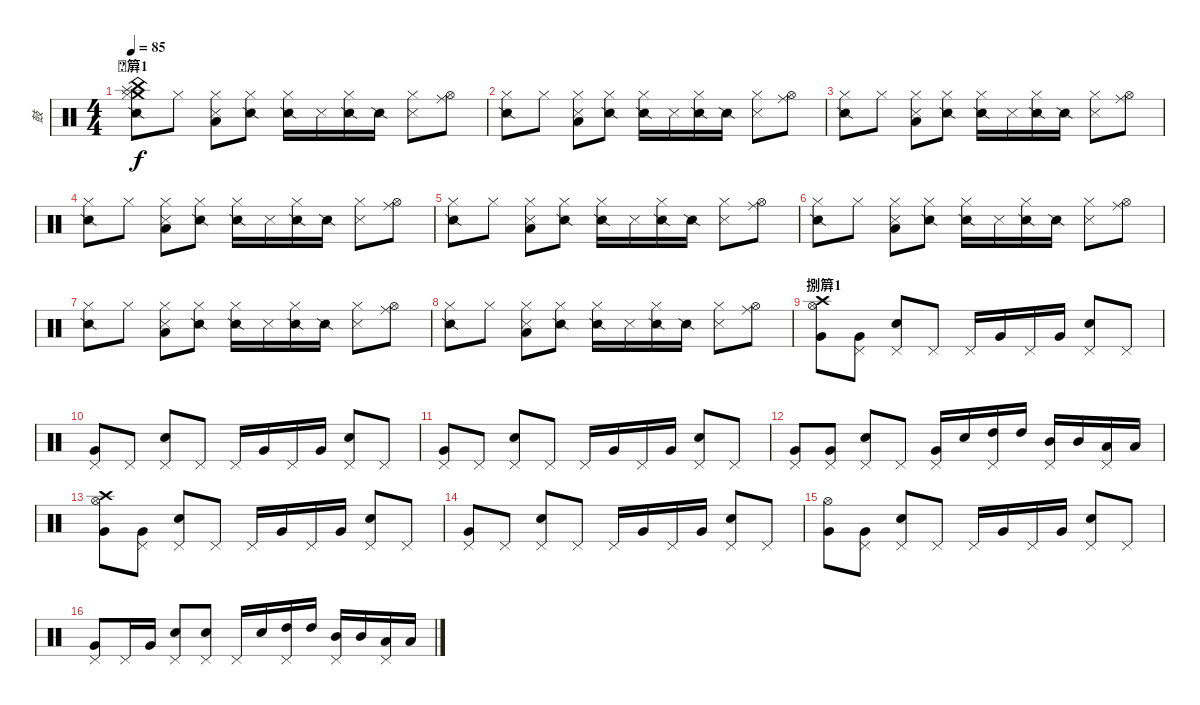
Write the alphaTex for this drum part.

\track ("鼓" "鼓") {instrument percussion}
\staff {score}
\articulation defaults
\ts (4 4)
\section ("" "簈1")
\tempo 85
\clef neutral
\ks c
("Crash medium (hit)" "Splash (hit)" "China (hit)" "Snare (side stick) 2" "Hi-Hat (closed)").8{dy f volume 16} "Hi-Hat (closed)".8 ("Metronome (hit)" "Low Floor Tom (hit)" "Hi-Hat (closed)").8 ("Snare (side stick) 2" "Hi-Hat (closed)").8 ("Snare (side stick) 2" "Hi-Hat (closed)").16 "Metronome (hit)".16 ("Snare (side stick) 2" "Hi-Hat (closed)").16 "Snare (side stick) 2".16 ("Metronome (hit)" "Hi-Hat (closed)").8 ("Ride (middle)" "Hi-Hat (open)").8 |
("Snare (side stick) 2" "Hi-Hat (closed)").8 "Hi-Hat (closed)".8 ("Metronome (hit)" "Low Floor Tom (hit)" "Hi-Hat (closed)").8 ("Snare (side stick) 2" "Hi-Hat (closed)").8 ("Snare (side stick) 2" "Hi-Hat (closed)").16 "Metronome (hit)".16 ("Snare (side stick) 2" "Hi-Hat (closed)").16 "Snare (side stick) 2".16 ("Metronome (hit)" "Hi-Hat (closed)").8 ("Ride (middle)" "Hi-Hat (open)").8 |
("Snare (side stick) 2" "Hi-Hat (closed)").8 "Hi-Hat (closed)".8 ("Metronome (hit)" "Low Floor Tom (hit)" "Hi-Hat (closed)").8 ("Snare (side stick) 2" "Hi-Hat (closed)").8 ("Snare (side stick) 2" "Hi-Hat (closed)").16 "Metronome (hit)".16 ("Snare (side stick) 2" "Hi-Hat (closed)").16 "Snare (side stick) 2".16 ("Metronome (hit)" "Hi-Hat (closed)").8 ("Ride (middle)" "Hi-Hat (open)").8 |
("Snare (side stick) 2" "Hi-Hat (closed)").8 "Hi-Hat (closed)".8 ("Metronome (hit)" "Low Floor Tom (hit)" "Hi-Hat (closed)").8 ("Snare (side stick) 2" "Hi-Hat (closed)").8 ("Snare (side stick) 2" "Hi-Hat (closed)").16 "Metronome (hit)".16 ("Snare (side stick) 2" "Hi-Hat (closed)").16 "Snare (side stick) 2".16 ("Metronome (hit)" "Hi-Hat (closed)").8 ("Ride (middle)" "Hi-Hat (open)").8 |
("Snare (side stick) 2" "Hi-Hat (closed)").8 "Hi-Hat (closed)".8 ("Metronome (hit)" "Low Floor Tom (hit)" "Hi-Hat (closed)").8 ("Snare (side stick) 2" "Hi-Hat (closed)").8 ("Snare (side stick) 2" "Hi-Hat (closed)").16 "Metronome (hit)".16 ("Snare (side stick) 2" "Hi-Hat (closed)").16 "Snare (side stick) 2".16 ("Metronome (hit)" "Hi-Hat (closed)").8 ("Ride (middle)" "Hi-Hat (open)").8 |
("Snare (side stick) 2" "Hi-Hat (closed)").8 "Hi-Hat (closed)".8 ("Metronome (hit)" "Low Floor Tom (hit)" "Hi-Hat (closed)").8 ("Snare (side stick) 2" "Hi-Hat (closed)").8 ("Snare (side stick) 2" "Hi-Hat (closed)").16 "Metronome (hit)".16 ("Snare (side stick) 2" "Hi-Hat (closed)").16 "Snare (side stick) 2".16 ("Metronome (hit)" "Hi-Hat (closed)").8 ("Ride (middle)" "Hi-Hat (open)").8 |
("Snare (side stick) 2" "Hi-Hat (closed)").8 "Hi-Hat (closed)".8 ("Metronome (hit)" "Low Floor Tom (hit)" "Hi-Hat (closed)").8 ("Snare (side stick) 2" "Hi-Hat (closed)").8 ("Snare (side stick) 2" "Hi-Hat (closed)").16 "Metronome (hit)".16 ("Snare (side stick) 2" "Hi-Hat (closed)").16 "Snare (side stick) 2".16 ("Metronome (hit)" "Hi-Hat (closed)").8 ("Ride (middle)" "Hi-Hat (open)").8 |
("Snare (side stick) 2" "Hi-Hat (closed)").8 "Hi-Hat (closed)".8 ("Metronome (hit)" "Low Floor Tom (hit)" "Hi-Hat (closed)").8 ("Snare (side stick) 2" "Hi-Hat (closed)").8 ("Snare (side stick) 2" "Hi-Hat (closed)").16 "Metronome (hit)".16 ("Snare (side stick) 2" "Hi-Hat (closed)").16 "Snare (side stick) 2".16 ("Metronome (hit)" "Hi-Hat (closed)").8 ("Ride (middle)" "Hi-Hat (open)").8 |
\section ("" "捌簈1")
("Crash high (hit)" "Very Low Tom (hit)" "Hi-Hat (open)").8 ("Very Low Tom (hit)" "Pedal Hi-Hat (hit)").8 ("Snare (hit) 2" "Pedal Hi-Hat (hit)").8 "Pedal Hi-Hat (hit)".8 "Pedal Hi-Hat (hit)".16 "Very Low Tom (hit)".16 "Pedal Hi-Hat (hit)".16 "Very Low Tom (hit)".16 ("Snare (hit) 2" "Pedal Hi-Hat (hit)").8 "Pedal Hi-Hat (hit)".8 |
("Very Low Tom (hit)" "Pedal Hi-Hat (hit)").8 "Pedal Hi-Hat (hit)".8 ("Snare (hit) 2" "Pedal Hi-Hat (hit)").8 "Pedal Hi-Hat (hit)".8 "Pedal Hi-Hat (hit)".16 "Very Low Tom (hit)".16 "Pedal Hi-Hat (hit)".16 "Very Low Tom (hit)".16 ("Snare (hit) 2" "Pedal Hi-Hat (hit)").8 "Pedal Hi-Hat (hit)".8 |
("Very Low Tom (hit)" "Pedal Hi-Hat (hit)").8 "Pedal Hi-Hat (hit)".8 ("Snare (hit) 2" "Pedal Hi-Hat (hit)").8 "Pedal Hi-Hat (hit)".8 "Pedal Hi-Hat (hit)".16 "Very Low Tom (hit)".16 "Pedal Hi-Hat (hit)".16 "Very Low Tom (hit)".16 ("Snare (hit) 2" "Pedal Hi-Hat (hit)").8 "Pedal Hi-Hat (hit)".8 |
("Very Low Tom (hit)" "Pedal Hi-Hat (hit)").8 ("Very Low Tom (hit)" "Pedal Hi-Hat (hit)").8 ("Snare (hit) 2" "Pedal Hi-Hat (hit)").8 "Pedal Hi-Hat (hit)".8 ("Very Low Tom (hit)" "Pedal Hi-Hat (hit)").16 "Snare (hit) 2".16 ("High Tom (hit)" "Pedal Hi-Hat (hit)").16 "High Tom (hit)".16 ("Mid Tom (hit)" "Pedal Hi-Hat (hit)").16 "Mid Tom (hit)".16 ("Low Tom (hit)" "Pedal Hi-Hat (hit)").16 "Low Tom (hit)".16 |
("Crash high (hit)" "Very Low Tom (hit)" "Hi-Hat (open)").8 ("Very Low Tom (hit)" "Pedal Hi-Hat (hit)").8 ("Snare (hit) 2" "Pedal Hi-Hat (hit)").8 "Pedal Hi-Hat (hit)".8 "Pedal Hi-Hat (hit)".16 "Very Low Tom (hit)".16 "Pedal Hi-Hat (hit)".16 "Very Low Tom (hit)".16 ("Snare (hit) 2" "Pedal Hi-Hat (hit)").8 "Pedal Hi-Hat (hit)".8 |
("Very Low Tom (hit)" "Pedal Hi-Hat (hit)").8 "Pedal Hi-Hat (hit)".8 ("Snare (hit) 2" "Pedal Hi-Hat (hit)").8 "Pedal Hi-Hat (hit)".8 "Pedal Hi-Hat (hit)".16 "Very Low Tom (hit)".16 "Pedal Hi-Hat (hit)".16 "Very Low Tom (hit)".16 ("Snare (hit) 2" "Pedal Hi-Hat (hit)").8 "Pedal Hi-Hat (hit)".8 |
("Very Low Tom (hit)" "Hi-Hat (open)").8 ("Very Low Tom (hit)" "Pedal Hi-Hat (hit)").8 ("Snare (hit) 2" "Pedal Hi-Hat (hit)").8 "Pedal Hi-Hat (hit)".8 "Pedal Hi-Hat (hit)".16 "Very Low Tom (hit)".16 "Pedal Hi-Hat (hit)".16 "Very Low Tom (hit)".16 ("Snare (hit) 2" "Pedal Hi-Hat (hit)").8 "Pedal Hi-Hat (hit)".8 |
("Very Low Tom (hit)" "Pedal Hi-Hat (hit)").8 "Pedal Hi-Hat (hit)".16 "Very Low Tom (hit)".16 ("Snare (hit) 2" "Pedal Hi-Hat (hit)").8 ("Snare (hit) 2" "Pedal Hi-Hat (hit)").8 "Pedal Hi-Hat (hit)".16 "Snare (hit) 2".16 ("High Tom (hit)" "Pedal Hi-Hat (hit)").16 "High Tom (hit)".16 ("Mid Tom (hit)" "Pedal Hi-Hat (hit)").16 "Mid Tom (hit)".16 ("Low Tom (hit)" "Pedal Hi-Hat (hit)").16 "Low Tom (hit)".16
